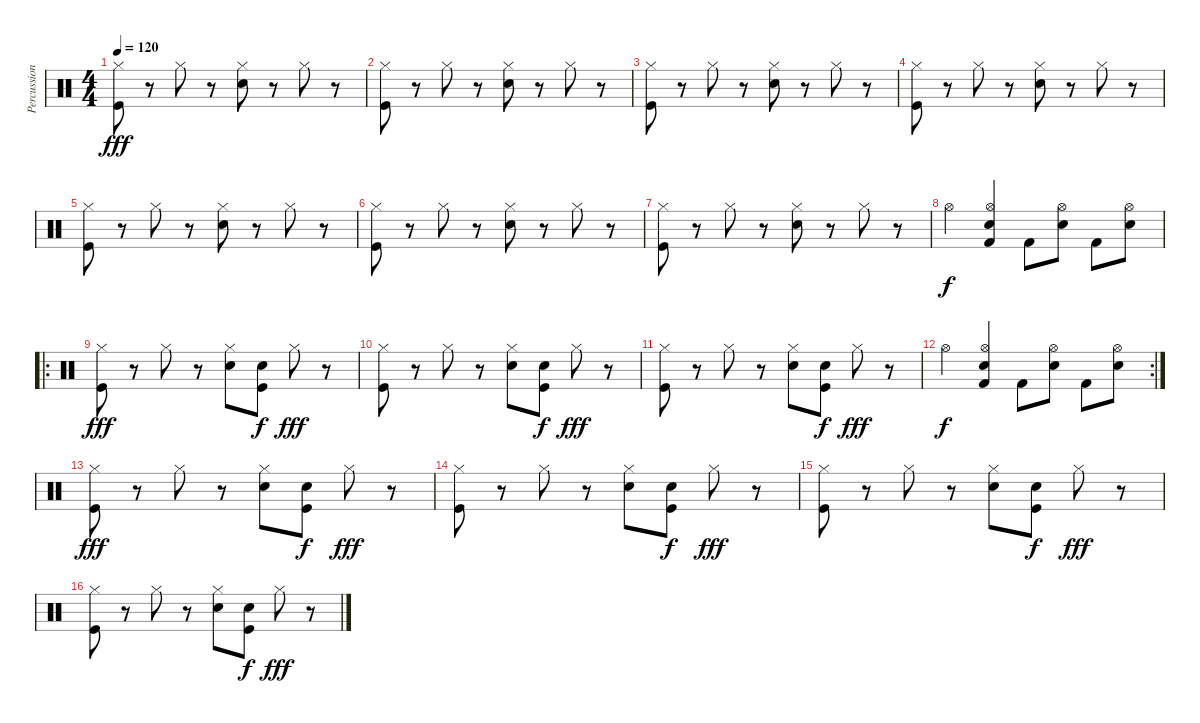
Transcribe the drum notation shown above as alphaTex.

\track ("Percussion(Satish)" "Percussion") {instrument percussion}
\staff {score}
\articulation defaults
\ts (4 4)
\tempo 120
\clef neutral
\ks c
("Hi-Hat (closed)" "Kick (hit)").8{dy fff} r.8 "Hi-Hat (closed)".8 r.8 ("Hi-Hat (closed)" "Snare (hit) 2").8 r.8 "Hi-Hat (closed)".8 r.8 |
("Hi-Hat (closed)" "Kick (hit)").8 r.8 "Hi-Hat (closed)".8 r.8 ("Hi-Hat (closed)" "Snare (hit) 2").8 r.8 "Hi-Hat (closed)".8 r.8 |
("Hi-Hat (closed)" "Kick (hit)").8 r.8 "Hi-Hat (closed)".8 r.8 ("Hi-Hat (closed)" "Snare (hit) 2").8 r.8 "Hi-Hat (closed)".8 r.8 |
("Hi-Hat (closed)" "Kick (hit)").8 r.8 "Hi-Hat (closed)".8 r.8 ("Hi-Hat (closed)" "Snare (hit) 2").8 r.8 "Hi-Hat (closed)".8 r.8 |
("Hi-Hat (closed)" "Kick (hit)").8 r.8 "Hi-Hat (closed)".8 r.8 ("Hi-Hat (closed)" "Snare (hit) 2").8 r.8 "Hi-Hat (closed)".8 r.8 |
("Hi-Hat (closed)" "Kick (hit)").8 r.8 "Hi-Hat (closed)".8 r.8 ("Hi-Hat (closed)" "Snare (hit) 2").8 r.8 "Hi-Hat (closed)".8 r.8 |
("Hi-Hat (closed)" "Kick (hit)").8 r.8 "Hi-Hat (closed)".8 r.8 ("Hi-Hat (closed)" "Snare (hit) 2").8 r.8 "Hi-Hat (closed)".8 r.8 |
"Hi-Hat (open)".4{dy f} ("Kick (hit) 2" "Snare (hit) 2" "Hi-Hat (open)").4 "Kick (hit) 2".8 ("Hi-Hat (open)" "Electric Snare (hit)").8 "Kick (hit) 2".8 ("Electric Snare (hit)" "Hi-Hat (open)").8 |
\ro
("Hi-Hat (closed)" "Kick (hit)").8{dy fff} r.8 "Hi-Hat (closed)".8 r.8 ("Hi-Hat (closed)" "Snare (hit) 2").8 ("Snare (hit) 2" "Kick (hit)").8{dy f} "Hi-Hat (closed)".8{dy fff} r.8 |
("Hi-Hat (closed)" "Kick (hit)").8 r.8 "Hi-Hat (closed)".8 r.8 ("Hi-Hat (closed)" "Snare (hit) 2").8 ("Snare (hit) 2" "Kick (hit)").8{dy f} "Hi-Hat (closed)".8{dy fff} r.8 |
("Hi-Hat (closed)" "Kick (hit)").8 r.8 "Hi-Hat (closed)".8 r.8 ("Hi-Hat (closed)" "Snare (hit) 2").8 ("Snare (hit) 2" "Kick (hit)").8{dy f} "Hi-Hat (closed)".8{dy fff} r.8 |
\rc 2 "Hi-Hat (open)".4{dy f}
("Kick (hit) 2" "Snare (hit) 2" "Hi-Hat (open)").4 "Kick (hit) 2".8 ("Hi-Hat (open)" "Electric Snare (hit)").8 "Kick (hit) 2".8 ("Electric Snare (hit)" "Hi-Hat (open)").8 |
("Hi-Hat (closed)" "Kick (hit)").8{dy fff} r.8 "Hi-Hat (closed)".8 r.8 ("Hi-Hat (closed)" "Snare (hit) 2").8 ("Snare (hit) 2" "Kick (hit)").8{dy f} "Hi-Hat (closed)".8{dy fff} r.8 |
("Hi-Hat (closed)" "Kick (hit)").8 r.8 "Hi-Hat (closed)".8 r.8 ("Hi-Hat (closed)" "Snare (hit) 2").8 ("Snare (hit) 2" "Kick (hit)").8{dy f} "Hi-Hat (closed)".8{dy fff} r.8 |
("Hi-Hat (closed)" "Kick (hit)").8 r.8 "Hi-Hat (closed)".8 r.8 ("Hi-Hat (closed)" "Snare (hit) 2").8 ("Snare (hit) 2" "Kick (hit)").8{dy f} "Hi-Hat (closed)".8{dy fff} r.8 |
("Hi-Hat (closed)" "Kick (hit)").8 r.8 "Hi-Hat (closed)".8 r.8 ("Hi-Hat (closed)" "Snare (hit) 2").8 ("Snare (hit) 2" "Kick (hit)").8{dy f} "Hi-Hat (closed)".8{dy fff} r.8
